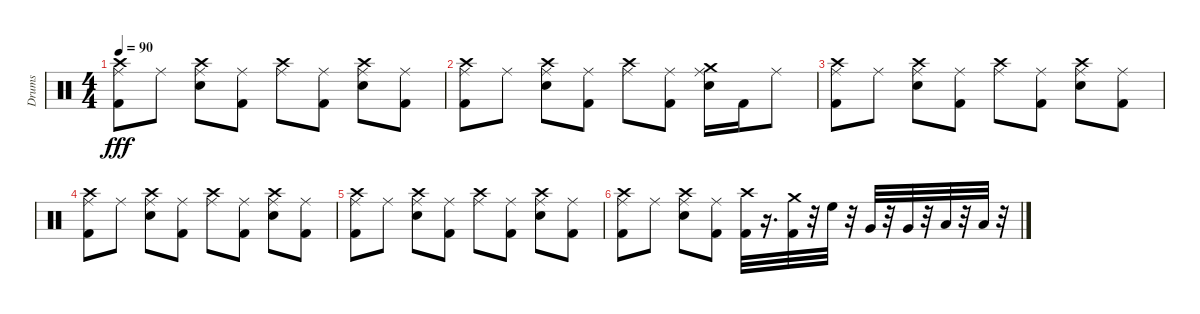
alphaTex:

\track ("Drums" "Drums") {instrument percussion}
\staff {score}
\articulation defaults
\ts (4 4)
\tempo 90
\clef neutral
\ks c
("Kick (hit) 2" "Crash high (hit)" "Ride (middle)").8{dy fff} "Ride (middle)".8 ("Snare (hit) 2" "Crash high (hit)" "Ride (middle)").8 ("Kick (hit) 2" "Ride (middle)").8 ("Crash high (hit)" "Ride (middle)").8 ("Kick (hit) 2" "Ride (middle)").8 ("Snare (hit) 2" "Crash high (hit)" "Ride (middle)").8 ("Kick (hit) 2" "Ride (middle)").8 |
("Kick (hit) 2" "Crash high (hit)" "Ride (middle)").8 "Ride (middle)".8 ("Snare (hit) 2" "Crash high (hit)" "Ride (middle)").8 ("Kick (hit) 2" "Ride (middle)").8 ("Crash high (hit)" "Ride (middle)").8 ("Kick (hit) 2" "Ride (middle)").8 ("Snare (hit) 2" "Ride (middle)" "Crash medium (hit)").16 "Kick (hit) 2".16 "Ride (middle)".8 |
("Kick (hit) 2" "Crash high (hit)" "Ride (middle)").8 "Ride (middle)".8 ("Snare (hit) 2" "Crash high (hit)" "Ride (middle)").8 ("Kick (hit) 2" "Ride (middle)").8 ("Crash high (hit)" "Ride (middle)").8 ("Kick (hit) 2" "Ride (middle)").8 ("Snare (hit) 2" "Crash high (hit)" "Ride (middle)").8 ("Kick (hit) 2" "Ride (middle)").8 |
("Kick (hit) 2" "Crash high (hit)" "Ride (middle)").8 "Ride (middle)".8 ("Snare (hit) 2" "Crash high (hit)" "Ride (middle)").8 ("Kick (hit) 2" "Ride (middle)").8 ("Crash high (hit)" "Ride (middle)").8 ("Kick (hit) 2" "Ride (middle)").8 ("Snare (hit) 2" "Crash high (hit)" "Ride (middle)").8 ("Kick (hit) 2" "Ride (middle)").8 |
("Kick (hit) 2" "Crash high (hit)" "Ride (middle)").8 "Ride (middle)".8 ("Snare (hit) 2" "Crash high (hit)" "Ride (middle)").8 ("Kick (hit) 2" "Ride (middle)").8 ("Crash high (hit)" "Ride (middle)").8 ("Kick (hit) 2" "Ride (middle)").8 ("Snare (hit) 2" "Crash high (hit)" "Ride (middle)").8 ("Kick (hit) 2" "Ride (middle)").8 |
("Kick (hit) 2" "Crash high (hit)" "Ride (middle)").8 "Ride (middle)".8 ("Snare (hit) 2" "Crash high (hit)" "Ride (middle)").8 ("Kick (hit) 2" "Ride (middle)").8 ("Kick (hit) 2" "Crash high (hit)").32 r.16{d} ("Crash medium (hit)" "Kick (hit) 2").32 r.32 "High Floor Tom (hit)".32 r.32 "Very Low Tom (hit)".32 r.32 "Very Low Tom (hit)".32 r.32 "Low Floor Tom (hit)".32 r.32 "Low Floor Tom (hit)".32 r.32
